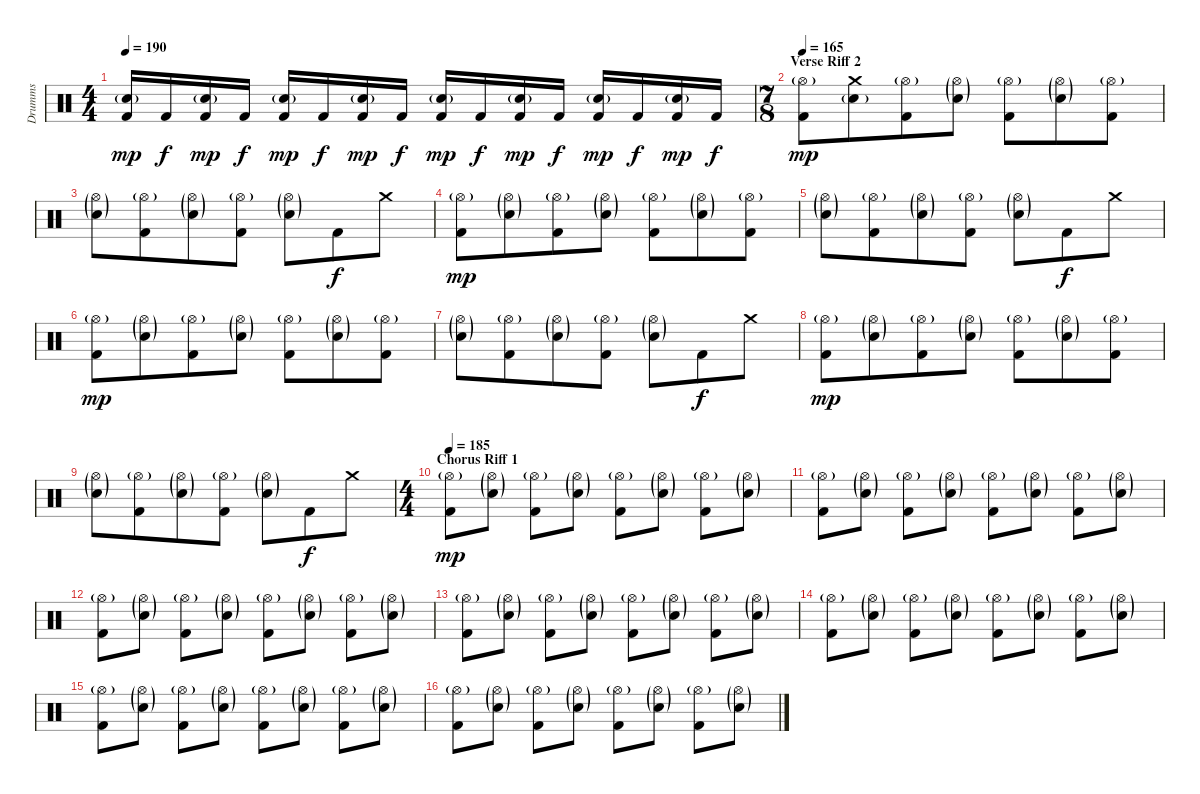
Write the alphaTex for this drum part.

\track ("Drumms" "Drumms") {instrument percussion}
\staff {score}
\articulation defaults
\ts (4 4)
\tempo 190
\clef neutral
\ks c
("Electric Snare (hit)"{g} "Kick (hit) 2").16{dy mp} "Kick (hit) 2".16{dy f} ("Electric Snare (hit)"{g} "Kick (hit) 2").16{dy mp} "Kick (hit) 2".16{dy f} ("Electric Snare (hit)"{g} "Kick (hit) 2").16{dy mp} "Kick (hit) 2".16{dy f} ("Electric Snare (hit)"{g} "Kick (hit) 2").16{dy mp} "Kick (hit) 2".16{dy f} ("Electric Snare (hit)"{g} "Kick (hit) 2").16{dy mp} "Kick (hit) 2".16{dy f} ("Electric Snare (hit)"{g} "Kick (hit) 2").16{dy mp} "Kick (hit) 2".16{dy f} ("Electric Snare (hit)"{g} "Kick (hit) 2").16{dy mp} "Kick (hit) 2".16{dy f} ("Electric Snare (hit)"{g} "Kick (hit) 2").16{dy mp} "Kick (hit) 2".16{dy f} |
\ts (7 8)
\section ("" "Verse Riff 2")
\tempo 165
("Hi-Hat (open)"{g} "Kick (hit) 2").8{dy mp} ("Crash medium (hit)" "Snare (hit) 2"{g}).8 ("Hi-Hat (open)"{g} "Kick (hit) 2").8 ("Hi-Hat (open)"{g} "Snare (hit) 2"{g}).8 ("Hi-Hat (open)"{g} "Kick (hit) 2").8 ("Hi-Hat (open)"{g} "Snare (hit) 2"{g}).8 ("Hi-Hat (open)"{g} "Kick (hit) 2").8 |
("Hi-Hat (open)"{g} "Snare (hit) 2"{g}).8 ("Hi-Hat (open)"{g} "Kick (hit) 2").8 ("Hi-Hat (open)"{g} "Snare (hit) 2"{g}).8 ("Hi-Hat (open)"{g} "Kick (hit) 2").8 ("Hi-Hat (open)"{g} "Snare (hit) 2"{g}).8 "Kick (hit) 2".8{dy f} "Crash medium (hit)".8 |
("Hi-Hat (open)"{g} "Kick (hit) 2").8{dy mp} ("Hi-Hat (open)"{g} "Snare (hit) 2"{g}).8 ("Hi-Hat (open)"{g} "Kick (hit) 2").8 ("Hi-Hat (open)"{g} "Snare (hit) 2"{g}).8 ("Hi-Hat (open)"{g} "Kick (hit) 2").8 ("Hi-Hat (open)"{g} "Snare (hit) 2"{g}).8 ("Hi-Hat (open)"{g} "Kick (hit) 2").8 |
("Hi-Hat (open)"{g} "Snare (hit) 2"{g}).8 ("Hi-Hat (open)"{g} "Kick (hit) 2").8 ("Hi-Hat (open)"{g} "Snare (hit) 2"{g}).8 ("Hi-Hat (open)"{g} "Kick (hit) 2").8 ("Hi-Hat (open)"{g} "Snare (hit) 2"{g}).8 "Kick (hit) 2".8{dy f} "Crash medium (hit)".8 |
("Hi-Hat (open)"{g} "Kick (hit) 2").8{dy mp} ("Hi-Hat (open)"{g} "Snare (hit) 2"{g}).8 ("Hi-Hat (open)"{g} "Kick (hit) 2").8 ("Hi-Hat (open)"{g} "Snare (hit) 2"{g}).8 ("Hi-Hat (open)"{g} "Kick (hit) 2").8 ("Hi-Hat (open)"{g} "Snare (hit) 2"{g}).8 ("Hi-Hat (open)"{g} "Kick (hit) 2").8 |
("Hi-Hat (open)"{g} "Snare (hit) 2"{g}).8 ("Hi-Hat (open)"{g} "Kick (hit) 2").8 ("Hi-Hat (open)"{g} "Snare (hit) 2"{g}).8 ("Hi-Hat (open)"{g} "Kick (hit) 2").8 ("Hi-Hat (open)"{g} "Snare (hit) 2"{g}).8 "Kick (hit) 2".8{dy f} "Crash medium (hit)".8 |
("Hi-Hat (open)"{g} "Kick (hit) 2").8{dy mp} ("Hi-Hat (open)"{g} "Snare (hit) 2"{g}).8 ("Hi-Hat (open)"{g} "Kick (hit) 2").8 ("Hi-Hat (open)"{g} "Snare (hit) 2"{g}).8 ("Hi-Hat (open)"{g} "Kick (hit) 2").8 ("Hi-Hat (open)"{g} "Snare (hit) 2"{g}).8 ("Hi-Hat (open)"{g} "Kick (hit) 2").8 |
("Hi-Hat (open)"{g} "Snare (hit) 2"{g}).8 ("Hi-Hat (open)"{g} "Kick (hit) 2").8 ("Hi-Hat (open)"{g} "Snare (hit) 2"{g}).8 ("Hi-Hat (open)"{g} "Kick (hit) 2").8 ("Hi-Hat (open)"{g} "Snare (hit) 2"{g}).8 "Kick (hit) 2".8{dy f} "Crash medium (hit)".8 |
\ts (4 4)
\section ("" "Chorus Riff 1")
\tempo 185
("Hi-Hat (open)"{g} "Kick (hit) 2").8{dy mp} ("Hi-Hat (open)"{g} "Snare (hit) 2"{g}).8 ("Hi-Hat (open)"{g} "Kick (hit) 2").8 ("Hi-Hat (open)"{g} "Snare (hit) 2"{g}).8 ("Hi-Hat (open)"{g} "Kick (hit) 2").8 ("Hi-Hat (open)"{g} "Snare (hit) 2"{g}).8 ("Hi-Hat (open)"{g} "Kick (hit) 2").8 ("Hi-Hat (open)"{g} "Snare (hit) 2"{g}).8 |
("Hi-Hat (open)"{g} "Kick (hit) 2").8 ("Hi-Hat (open)"{g} "Snare (hit) 2"{g}).8 ("Hi-Hat (open)"{g} "Kick (hit) 2").8 ("Hi-Hat (open)"{g} "Snare (hit) 2"{g}).8 ("Hi-Hat (open)"{g} "Kick (hit) 2").8 ("Hi-Hat (open)"{g} "Snare (hit) 2"{g}).8 ("Hi-Hat (open)"{g} "Kick (hit) 2").8 ("Hi-Hat (open)"{g} "Snare (hit) 2"{g}).8 |
("Hi-Hat (open)"{g} "Kick (hit) 2").8 ("Hi-Hat (open)"{g} "Snare (hit) 2"{g}).8 ("Hi-Hat (open)"{g} "Kick (hit) 2").8 ("Hi-Hat (open)"{g} "Snare (hit) 2"{g}).8 ("Hi-Hat (open)"{g} "Kick (hit) 2").8 ("Hi-Hat (open)"{g} "Snare (hit) 2"{g}).8 ("Hi-Hat (open)"{g} "Kick (hit) 2").8 ("Hi-Hat (open)"{g} "Snare (hit) 2"{g}).8 |
("Hi-Hat (open)"{g} "Kick (hit) 2").8 ("Hi-Hat (open)"{g} "Snare (hit) 2"{g}).8 ("Hi-Hat (open)"{g} "Kick (hit) 2").8 ("Hi-Hat (open)"{g} "Snare (hit) 2"{g}).8 ("Hi-Hat (open)"{g} "Kick (hit) 2").8 ("Hi-Hat (open)"{g} "Snare (hit) 2"{g}).8 ("Hi-Hat (open)"{g} "Kick (hit) 2").8 ("Hi-Hat (open)"{g} "Snare (hit) 2"{g}).8 |
("Hi-Hat (open)"{g} "Kick (hit) 2").8 ("Hi-Hat (open)"{g} "Snare (hit) 2"{g}).8 ("Hi-Hat (open)"{g} "Kick (hit) 2").8 ("Hi-Hat (open)"{g} "Snare (hit) 2"{g}).8 ("Hi-Hat (open)"{g} "Kick (hit) 2").8 ("Hi-Hat (open)"{g} "Snare (hit) 2"{g}).8 ("Hi-Hat (open)"{g} "Kick (hit) 2").8 ("Hi-Hat (open)"{g} "Snare (hit) 2"{g}).8 |
("Hi-Hat (open)"{g} "Kick (hit) 2").8 ("Hi-Hat (open)"{g} "Snare (hit) 2"{g}).8 ("Hi-Hat (open)"{g} "Kick (hit) 2").8 ("Hi-Hat (open)"{g} "Snare (hit) 2"{g}).8 ("Hi-Hat (open)"{g} "Kick (hit) 2").8 ("Hi-Hat (open)"{g} "Snare (hit) 2"{g}).8 ("Hi-Hat (open)"{g} "Kick (hit) 2").8 ("Hi-Hat (open)"{g} "Snare (hit) 2"{g}).8 |
("Hi-Hat (open)"{g} "Kick (hit) 2").8 ("Hi-Hat (open)"{g} "Snare (hit) 2"{g}).8 ("Hi-Hat (open)"{g} "Kick (hit) 2").8 ("Hi-Hat (open)"{g} "Snare (hit) 2"{g}).8 ("Hi-Hat (open)"{g} "Kick (hit) 2").8 ("Hi-Hat (open)"{g} "Snare (hit) 2"{g}).8 ("Hi-Hat (open)"{g} "Kick (hit) 2").8 ("Hi-Hat (open)"{g} "Snare (hit) 2"{g}).8
